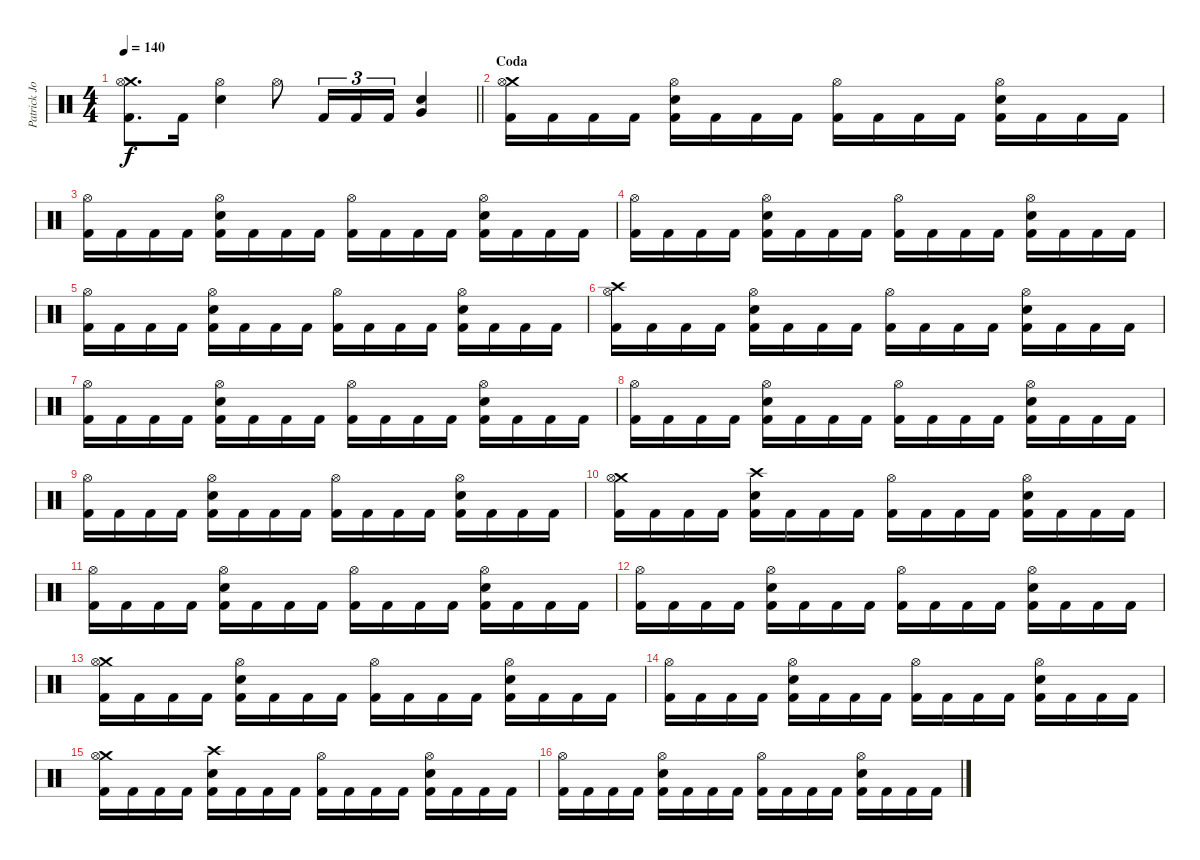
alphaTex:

\track ("Patrick Johansson" "Patrick Jo") {instrument percussion}
\staff {score}
\articulation defaults
\ts (4 4)
\tempo 140
\clef neutral
\barLineRight lightlight
\ks c
("Crash medium (hit)" "Hi-Hat (open)" "Kick (hit) 2").8{d dy f} "Kick (hit) 2".16 ("Hi-Hat (open)" "Snare (hit) 2").4 "Hi-Hat (open)".8 "Kick (hit) 2".16{tu (3 2)} "Kick (hit) 2".16{tu (3 2)} "Kick (hit) 2".16{tu (3 2)} ("Very Low Tom (hit)" "Snare (hit) 2").4 |
\section ("" "Coda")
("Crash medium (hit)" "Hi-Hat (open)" "Kick (hit) 2").16 "Kick (hit) 2".16 "Kick (hit) 2".16 "Kick (hit) 2".16 ("Hi-Hat (open)" "Snare (hit) 2" "Kick (hit) 2").16 "Kick (hit) 2".16 "Kick (hit) 2".16 "Kick (hit) 2".16 ("Hi-Hat (open)" "Kick (hit) 2").16 "Kick (hit) 2".16 "Kick (hit) 2".16 "Kick (hit) 2".16 ("Hi-Hat (open)" "Snare (hit) 2" "Kick (hit) 2").16 "Kick (hit) 2".16 "Kick (hit) 2".16 "Kick (hit) 2".16 |
("Hi-Hat (open)" "Kick (hit) 2").16 "Kick (hit) 2".16 "Kick (hit) 2".16 "Kick (hit) 2".16 ("Hi-Hat (open)" "Snare (hit) 2" "Kick (hit) 2").16 "Kick (hit) 2".16 "Kick (hit) 2".16 "Kick (hit) 2".16 ("Hi-Hat (open)" "Kick (hit) 2").16 "Kick (hit) 2".16 "Kick (hit) 2".16 "Kick (hit) 2".16 ("Hi-Hat (open)" "Snare (hit) 2" "Kick (hit) 2").16 "Kick (hit) 2".16 "Kick (hit) 2".16 "Kick (hit) 2".16 |
("Hi-Hat (open)" "Kick (hit) 2").16 "Kick (hit) 2".16 "Kick (hit) 2".16 "Kick (hit) 2".16 ("Hi-Hat (open)" "Snare (hit) 2" "Kick (hit) 2").16 "Kick (hit) 2".16 "Kick (hit) 2".16 "Kick (hit) 2".16 ("Hi-Hat (open)" "Kick (hit) 2").16 "Kick (hit) 2".16 "Kick (hit) 2".16 "Kick (hit) 2".16 ("Hi-Hat (open)" "Snare (hit) 2" "Kick (hit) 2").16 "Kick (hit) 2".16 "Kick (hit) 2".16 "Kick (hit) 2".16 |
("Hi-Hat (open)" "Kick (hit) 2").16 "Kick (hit) 2".16 "Kick (hit) 2".16 "Kick (hit) 2".16 ("Hi-Hat (open)" "Snare (hit) 2" "Kick (hit) 2").16 "Kick (hit) 2".16 "Kick (hit) 2".16 "Kick (hit) 2".16 ("Hi-Hat (open)" "Kick (hit) 2").16 "Kick (hit) 2".16 "Kick (hit) 2".16 "Kick (hit) 2".16 ("Hi-Hat (open)" "Snare (hit) 2" "Kick (hit) 2").16 "Kick (hit) 2".16 "Kick (hit) 2".16 "Kick (hit) 2".16 |
("Crash high (hit)" "Hi-Hat (open)" "Kick (hit) 2").16 "Kick (hit) 2".16 "Kick (hit) 2".16 "Kick (hit) 2".16 ("Hi-Hat (open)" "Snare (hit) 2" "Kick (hit) 2").16 "Kick (hit) 2".16 "Kick (hit) 2".16 "Kick (hit) 2".16 ("Hi-Hat (open)" "Kick (hit) 2").16 "Kick (hit) 2".16 "Kick (hit) 2".16 "Kick (hit) 2".16 ("Hi-Hat (open)" "Snare (hit) 2" "Kick (hit) 2").16 "Kick (hit) 2".16 "Kick (hit) 2".16 "Kick (hit) 2".16 |
("Hi-Hat (open)" "Kick (hit) 2").16 "Kick (hit) 2".16 "Kick (hit) 2".16 "Kick (hit) 2".16 ("Hi-Hat (open)" "Snare (hit) 2" "Kick (hit) 2").16 "Kick (hit) 2".16 "Kick (hit) 2".16 "Kick (hit) 2".16 ("Hi-Hat (open)" "Kick (hit) 2").16 "Kick (hit) 2".16 "Kick (hit) 2".16 "Kick (hit) 2".16 ("Hi-Hat (open)" "Snare (hit) 2" "Kick (hit) 2").16 "Kick (hit) 2".16 "Kick (hit) 2".16 "Kick (hit) 2".16 |
("Hi-Hat (open)" "Kick (hit) 2").16 "Kick (hit) 2".16 "Kick (hit) 2".16 "Kick (hit) 2".16 ("Hi-Hat (open)" "Snare (hit) 2" "Kick (hit) 2").16 "Kick (hit) 2".16 "Kick (hit) 2".16 "Kick (hit) 2".16 ("Hi-Hat (open)" "Kick (hit) 2").16 "Kick (hit) 2".16 "Kick (hit) 2".16 "Kick (hit) 2".16 ("Hi-Hat (open)" "Snare (hit) 2" "Kick (hit) 2").16 "Kick (hit) 2".16 "Kick (hit) 2".16 "Kick (hit) 2".16 |
("Hi-Hat (open)" "Kick (hit) 2").16 "Kick (hit) 2".16 "Kick (hit) 2".16 "Kick (hit) 2".16 ("Hi-Hat (open)" "Snare (hit) 2" "Kick (hit) 2").16 "Kick (hit) 2".16 "Kick (hit) 2".16 "Kick (hit) 2".16 ("Hi-Hat (open)" "Kick (hit) 2").16 "Kick (hit) 2".16 "Kick (hit) 2".16 "Kick (hit) 2".16 ("Hi-Hat (open)" "Snare (hit) 2" "Kick (hit) 2").16 "Kick (hit) 2".16 "Kick (hit) 2".16 "Kick (hit) 2".16 |
("Crash medium (hit)" "Hi-Hat (open)" "Kick (hit) 2").16 "Kick (hit) 2".16 "Kick (hit) 2".16 "Kick (hit) 2".16 ("Crash high (hit)" "Snare (hit) 2" "Kick (hit) 2").16 "Kick (hit) 2".16 "Kick (hit) 2".16 "Kick (hit) 2".16 ("Hi-Hat (open)" "Kick (hit) 2").16 "Kick (hit) 2".16 "Kick (hit) 2".16 "Kick (hit) 2".16 ("Hi-Hat (open)" "Snare (hit) 2" "Kick (hit) 2").16 "Kick (hit) 2".16 "Kick (hit) 2".16 "Kick (hit) 2".16 |
("Hi-Hat (open)" "Kick (hit) 2").16 "Kick (hit) 2".16 "Kick (hit) 2".16 "Kick (hit) 2".16 ("Hi-Hat (open)" "Snare (hit) 2" "Kick (hit) 2").16 "Kick (hit) 2".16 "Kick (hit) 2".16 "Kick (hit) 2".16 ("Hi-Hat (open)" "Kick (hit) 2").16 "Kick (hit) 2".16 "Kick (hit) 2".16 "Kick (hit) 2".16 ("Hi-Hat (open)" "Snare (hit) 2" "Kick (hit) 2").16 "Kick (hit) 2".16 "Kick (hit) 2".16 "Kick (hit) 2".16 |
("Hi-Hat (open)" "Kick (hit) 2").16 "Kick (hit) 2".16 "Kick (hit) 2".16 "Kick (hit) 2".16 ("Hi-Hat (open)" "Snare (hit) 2" "Kick (hit) 2").16 "Kick (hit) 2".16 "Kick (hit) 2".16 "Kick (hit) 2".16 ("Hi-Hat (open)" "Kick (hit) 2").16 "Kick (hit) 2".16 "Kick (hit) 2".16 "Kick (hit) 2".16 ("Hi-Hat (open)" "Snare (hit) 2" "Kick (hit) 2").16 "Kick (hit) 2".16 "Kick (hit) 2".16 "Kick (hit) 2".16 |
("Crash medium (hit)" "Hi-Hat (open)" "Kick (hit) 2").16 "Kick (hit) 2".16 "Kick (hit) 2".16 "Kick (hit) 2".16 ("Hi-Hat (open)" "Snare (hit) 2" "Kick (hit) 2").16 "Kick (hit) 2".16 "Kick (hit) 2".16 "Kick (hit) 2".16 ("Hi-Hat (open)" "Kick (hit) 2").16 "Kick (hit) 2".16 "Kick (hit) 2".16 "Kick (hit) 2".16 ("Hi-Hat (open)" "Snare (hit) 2" "Kick (hit) 2").16 "Kick (hit) 2".16 "Kick (hit) 2".16 "Kick (hit) 2".16 |
("Hi-Hat (open)" "Kick (hit) 2").16 "Kick (hit) 2".16 "Kick (hit) 2".16 "Kick (hit) 2".16 ("Hi-Hat (open)" "Snare (hit) 2" "Kick (hit) 2").16 "Kick (hit) 2".16 "Kick (hit) 2".16 "Kick (hit) 2".16 ("Hi-Hat (open)" "Kick (hit) 2").16 "Kick (hit) 2".16 "Kick (hit) 2".16 "Kick (hit) 2".16 ("Hi-Hat (open)" "Snare (hit) 2" "Kick (hit) 2").16 "Kick (hit) 2".16 "Kick (hit) 2".16 "Kick (hit) 2".16 |
("Crash medium (hit)" "Hi-Hat (open)" "Kick (hit) 2").16 "Kick (hit) 2".16 "Kick (hit) 2".16 "Kick (hit) 2".16 ("Crash high (hit)" "Snare (hit) 2" "Kick (hit) 2").16 "Kick (hit) 2".16 "Kick (hit) 2".16 "Kick (hit) 2".16 ("Hi-Hat (open)" "Kick (hit) 2").16 "Kick (hit) 2".16 "Kick (hit) 2".16 "Kick (hit) 2".16 ("Hi-Hat (open)" "Snare (hit) 2" "Kick (hit) 2").16 "Kick (hit) 2".16 "Kick (hit) 2".16 "Kick (hit) 2".16 |
("Hi-Hat (open)" "Kick (hit) 2").16 "Kick (hit) 2".16 "Kick (hit) 2".16 "Kick (hit) 2".16 ("Hi-Hat (open)" "Snare (hit) 2" "Kick (hit) 2").16 "Kick (hit) 2".16 "Kick (hit) 2".16 "Kick (hit) 2".16 ("Hi-Hat (open)" "Kick (hit) 2").16 "Kick (hit) 2".16 "Kick (hit) 2".16 "Kick (hit) 2".16 ("Hi-Hat (open)" "Snare (hit) 2" "Kick (hit) 2").16 "Kick (hit) 2".16 "Kick (hit) 2".16 "Kick (hit) 2".16
